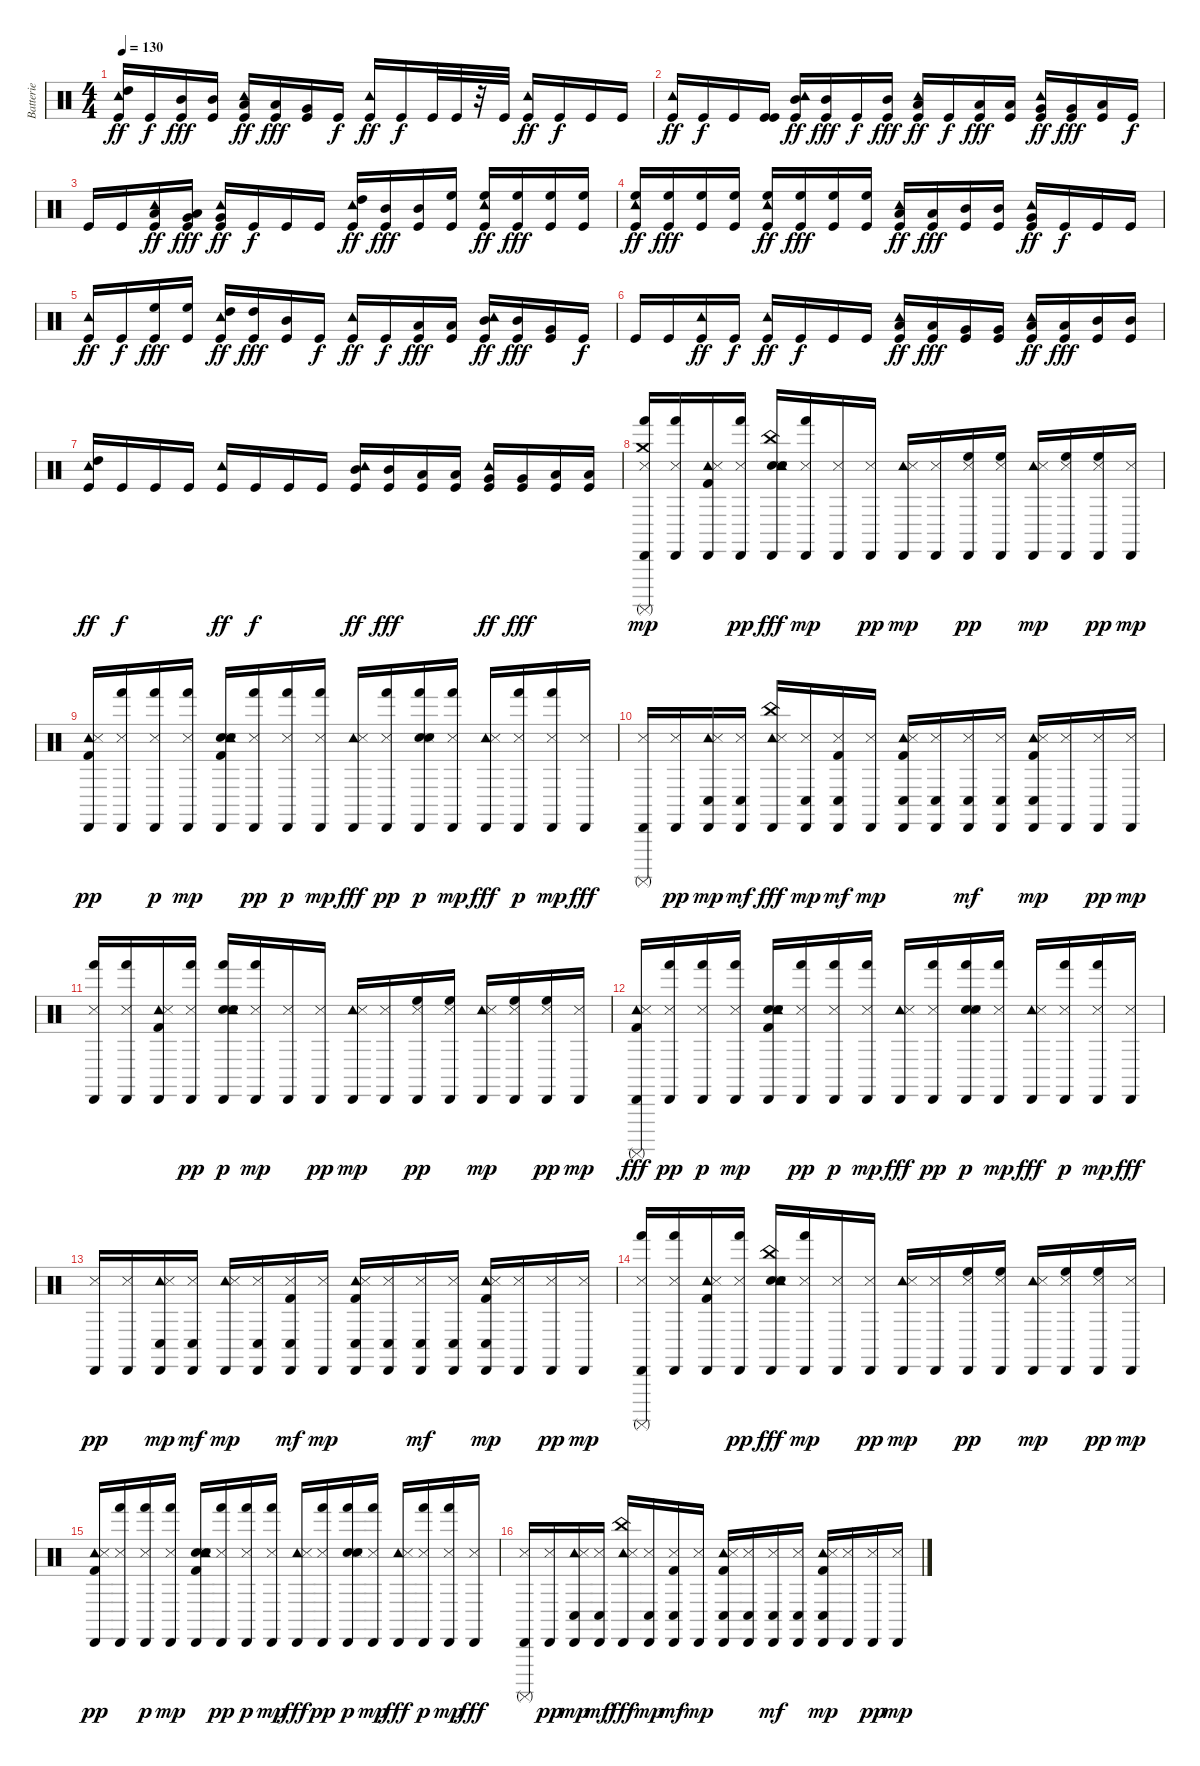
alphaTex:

\track ("Batterie" "Batterie") {instrument percussion}
\staff {score}
\articulation defaults
\ts (4 4)
\tempo 130
\clef neutral
\ks c
("High Tom (hit)" "Kick (hit)" "Tambourine (hit)").16{dy ff} "Kick (hit)".16{dy f} ("Kick (hit)" "Mid Tom (hit)").16{dy fff} ("Mid Tom (hit)" "Kick (hit)").16 ("Kick (hit)" "Low Tom (hit)" "Tambourine (hit)").16{dy ff} ("Low Tom (hit)" "Kick (hit)").16{dy fff} ("Kick (hit)" "Very Low Tom (hit)").16 "Kick (hit)".16{dy f} ("Kick (hit)" "Tambourine (hit)").16{dy ff} "Kick (hit)".16{dy f} "Kick (hit)".32 "Kick (hit)".32 r.32 "Kick (hit)".32 ("Kick (hit)" "Tambourine (hit)").16{dy ff} "Kick (hit)".16{dy f} "Kick (hit)".16 "Kick (hit)".16 |
("Kick (hit)" "Tambourine (hit)").16{dy ff} "Kick (hit)".16{dy f} "Kick (hit)".16 ("Kick (hit)" "Kick (hit)").16 ("Kick (hit)" "Mid Tom (hit)" "Tambourine (hit)").16{dy ff} ("Kick (hit)" "Mid Tom (hit)").16{dy fff} "Kick (hit)".16{dy f} ("Kick (hit)" "Mid Tom (hit)").16{dy fff} ("Kick (hit)" "Low Tom (hit)" "Tambourine (hit)").16{dy ff} "Kick (hit)".16{dy f} ("Kick (hit)" "Low Tom (hit)").16{dy fff} ("Kick (hit)" "Low Tom (hit)").16 ("Kick (hit)" "Very Low Tom (hit)" "Tambourine (hit)").16{dy ff} ("Kick (hit)" "Very Low Tom (hit)").16{dy fff} ("Low Floor Tom (hit)" "Kick (hit)").16 "Kick (hit)".16{dy f} |
"Kick (hit)".16 "Kick (hit)".16 ("Kick (hit)" "Low Tom (hit)" "Tambourine (hit)").16{dy ff} ("Kick (hit)" "Low Tom (hit)" "Very Low Tom (hit)").16{dy fff} ("Kick (hit)" "Very Low Tom (hit)" "Tambourine (hit)").16{dy ff} "Kick (hit)".16{dy f} "Kick (hit)".16 "Kick (hit)".16 ("Kick (hit)" "High Tom (hit)" "Tambourine (hit)").16{dy ff} ("Mid Tom (hit)" "Kick (hit)").16{dy fff} ("Mid Tom (hit)" "Kick (hit)").16 ("Kick (hit)" "High Floor Tom (hit)").16 ("Kick (hit)" "High Floor Tom (hit)" "Tambourine (hit)").16{dy ff} ("High Floor Tom (hit)" "Kick (hit)").16{dy fff} ("High Floor Tom (hit)" "Kick (hit)").16 ("High Floor Tom (hit)" "Kick (hit)").16 |
("High Floor Tom (hit)" "Kick (hit)" "Tambourine (hit)").16{dy ff} ("High Floor Tom (hit)" "Kick (hit)").16{dy fff} ("High Floor Tom (hit)" "Kick (hit)").16 ("High Floor Tom (hit)" "Kick (hit)").16 ("High Floor Tom (hit)" "Kick (hit)" "Tambourine (hit)").16{dy ff} ("High Floor Tom (hit)" "Kick (hit)").16{dy fff} ("High Floor Tom (hit)" "Kick (hit)").16 ("High Floor Tom (hit)" "Kick (hit)").16 ("Low Tom (hit)" "Kick (hit)" "Tambourine (hit)").16{dy ff} ("Low Tom (hit)" "Kick (hit)").16{dy fff} ("Mid Tom (hit)" "Kick (hit)").16 ("Mid Tom (hit)" "Kick (hit)").16 ("Very Low Tom (hit)" "Kick (hit)" "Tambourine (hit)").16{dy ff} "Kick (hit)".16{dy f} "Kick (hit)".16 "Kick (hit)".16 |
("Kick (hit)" "Tambourine (hit)").16{dy ff} "Kick (hit)".16{dy f} ("High Floor Tom (hit)" "Kick (hit)").16{dy fff} ("High Floor Tom (hit)" "Kick (hit)").16 ("High Tom (hit)" "Kick (hit)" "Tambourine (hit)").16{dy ff} ("High Tom (hit)" "Kick (hit)").16{dy fff} ("Mid Tom (hit)" "Kick (hit)").16 "Kick (hit)".16{dy f} ("Kick (hit)" "Tambourine (hit)").16{dy ff} "Kick (hit)".16{dy f} ("Low Tom (hit)" "Kick (hit)").16{dy fff} ("Low Tom (hit)" "Kick (hit)").16 ("Mid Tom (hit)" "Kick (hit)" "Tambourine (hit)").16{dy ff} ("Mid Tom (hit)" "Kick (hit)").16{dy fff} ("Very Low Tom (hit)" "Kick (hit)").16 "Kick (hit)".16{dy f} |
"Kick (hit)".16 "Kick (hit)".16 ("Kick (hit)" "Tambourine (hit)").16{dy ff} "Kick (hit)".16{dy f} ("Kick (hit)" "Tambourine (hit)").16{dy ff} "Kick (hit)".16{dy f} "Kick (hit)".16 "Kick (hit)".16 ("Low Floor Tom (hit)" "Kick (hit)" "Tambourine (hit)").16{dy ff} ("Low Floor Tom (hit)" "Kick (hit)").16{dy fff} ("Very Low Tom (hit)" "Kick (hit)").16 ("Very Low Tom (hit)" "Kick (hit)").16 ("Low Tom (hit)" "Kick (hit)" "Tambourine (hit)").16{dy ff} ("Low Tom (hit)" "Kick (hit)").16{dy fff} ("Mid Tom (hit)" "Kick (hit)").16 ("Mid Tom (hit)" "Kick (hit)").16 |
("High Tom (hit)" "Kick (hit)" "Tambourine (hit)").16{dy ff} "Kick (hit)".16{dy f} "Kick (hit)".16 "Kick (hit)".16 ("Kick (hit)" "Tambourine (hit)").16{dy ff} "Kick (hit)".16{dy f} "Kick (hit)".16 "Kick (hit)".16 ("Mid Tom (hit)" "Kick (hit)" "Tambourine (hit)").16{dy ff} ("Mid Tom (hit)" "Kick (hit)").16{dy fff} ("Low Tom (hit)" "Kick (hit)").16 ("Low Tom (hit)" "Kick (hit)").16 ("Very Low Tom (hit)" "Kick (hit)" "Tambourine (hit)").16{dy ff} ("Very Low Tom (hit)" "Kick (hit)").16{dy fff} ("Low Floor Tom (hit)" "Kick (hit)").16 ("Low Floor Tom (hit)" "Kick (hit)").16 |
("Cabasa (hit)" "Metronome (hit)" "Surdo (mute)" "Crash medium (hit)" "Hand (hit)").16{dy mp} ("Cabasa (hit)" "Metronome (hit)" "Hand (hit)").16 ("Cabasa (hit)" "Tambourine (hit)" "Kick (hit) 2" "Metronome (hit)").16 ("Cabasa (hit)" "Metronome (hit)" "Hand (hit)").16{dy pp} ("Hand Clap (hit)" "Cabasa (hit)" "Tambourine (hit)" "Snare (hit) 2" "Metronome (hit)" "China (hit)").16{dy fff} ("Cabasa (hit)" "Metronome (hit)" "Hand (hit)").16{dy mp} ("Cabasa (hit)" "Metronome (hit)").16 ("Cabasa (hit)" "Metronome (hit)").16{dy pp} ("Cabasa (hit)" "Tambourine (hit)" "Metronome (hit)").16{dy mp} ("Cabasa (hit)" "Metronome (hit)").16 ("Cabasa (hit)" "High Floor Tom (hit)" "Metronome (hit)").16{dy pp} ("Cabasa (hit)" "High Floor Tom (hit)" "Metronome (hit)").16 ("Cabasa (hit)" "Tambourine (hit)" "Metronome (hit)").16{dy mp} ("Cabasa (hit)" "High Floor Tom (hit)" "Metronome (hit)").16 ("Cabasa (hit)" "High Floor Tom (hit)" "Metronome (hit)").16{dy pp} ("Cabasa (hit)" "Metronome (hit)").16{dy mp} |
("Cabasa (hit)" "Tambourine (hit)" "Kick (hit) 2" "Metronome (hit)").16{dy pp} ("Cabasa (hit)" "Metronome (hit)" "Hand (hit)").16 ("Cabasa (hit)" "Metronome (hit)" "Hand (hit)").16{dy p} ("Cabasa (hit)" "Metronome (hit)" "Hand (hit)").16{dy mp} ("Hand Clap (hit)" "Cabasa (hit)" "Tambourine (hit)" "Kick (hit) 2" "Snare (hit) 2" "Metronome (hit)").16 ("Cabasa (hit)" "Metronome (hit)" "Hand (hit)").16{dy pp} ("Cabasa (hit)" "Metronome (hit)" "Hand (hit)").16{dy p} ("Cabasa (hit)" "Metronome (hit)" "Hand (hit)").16{dy mp} ("Cabasa (hit)" "Tambourine (hit)" "Metronome (hit)").16{dy fff} ("Cabasa (hit)" "Metronome (hit)" "Hand (hit)").16{dy pp} ("Hand Clap (hit)" "Cabasa (hit)" "Snare (hit) 2" "Metronome (hit)" "Hand (hit)").16{dy p} ("Cabasa (hit)" "Metronome (hit)" "Hand (hit)").16{dy mp} ("Cabasa (hit)" "Tambourine (hit)" "Metronome (hit)").16{dy fff} ("Cabasa (hit)" "Metronome (hit)" "Hand (hit)").16{dy p} ("Cabasa (hit)" "Metronome (hit)" "Hand (hit)").16{dy mp} ("Cabasa (hit)" "Metronome (hit)").16{dy fff} |
("Cabasa (hit)" "Metronome (hit)" "Surdo (mute)").16 ("Cabasa (hit)" "Metronome (hit)").16{dy pp} ("Cabasa (hit)" "Tambourine (hit)" "Metronome (hit)" "Conga low (hit)").16{dy mp} ("Cabasa (hit)" "Metronome (hit)" "Conga low (hit)").16{dy mf} ("Cabasa (hit)" "Tambourine (hit)" "Metronome (hit)" "China (hit)").16{dy fff} ("Cabasa (hit)" "Metronome (hit)" "Conga low (hit)").16{dy mp} ("Cabasa (hit)" "Kick (hit) 2" "Metronome (hit)" "Conga low (hit)").16{dy mf} ("Cabasa (hit)" "Metronome (hit)").16{dy mp} ("Cabasa (hit)" "Tambourine (hit)" "Kick (hit) 2" "Metronome (hit)" "Conga low (hit)").16 ("Cabasa (hit)" "Metronome (hit)" "Conga low (hit)").16 ("Cabasa (hit)" "Metronome (hit)" "Conga low (hit)").16{dy mf} ("Cabasa (hit)" "Metronome (hit)" "Conga low (hit)").16 ("Cabasa (hit)" "Tambourine (hit)" "Kick (hit) 2" "Metronome (hit)" "Conga low (hit)").16{dy mp} ("Cabasa (hit)" "Metronome (hit)").16 ("Cabasa (hit)" "Metronome (hit)").16{dy pp} ("Cabasa (hit)" "Metronome (hit)").16{dy mp} |
("Cabasa (hit)" "Metronome (hit)" "Hand (hit)").16 ("Cabasa (hit)" "Metronome (hit)" "Hand (hit)").16 ("Cabasa (hit)" "Tambourine (hit)" "Kick (hit) 2" "Metronome (hit)").16 ("Cabasa (hit)" "Metronome (hit)" "Hand (hit)").16{dy pp} ("Hand Clap (hit)" "Cabasa (hit)" "Tambourine (hit)" "Snare (hit) 2" "Metronome (hit)" "Hand (hit)").16{dy p} ("Cabasa (hit)" "Metronome (hit)" "Hand (hit)").16{dy mp} ("Cabasa (hit)" "Metronome (hit)").16 ("Cabasa (hit)" "Metronome (hit)").16{dy pp} ("Cabasa (hit)" "Tambourine (hit)" "Metronome (hit)").16{dy mp} ("Cabasa (hit)" "Metronome (hit)").16 ("Cabasa (hit)" "High Floor Tom (hit)" "Metronome (hit)").16{dy pp} ("Cabasa (hit)" "High Floor Tom (hit)" "Metronome (hit)").16 ("Cabasa (hit)" "Tambourine (hit)" "Metronome (hit)").16{dy mp} ("Cabasa (hit)" "High Floor Tom (hit)" "Metronome (hit)").16 ("Cabasa (hit)" "High Floor Tom (hit)" "Metronome (hit)").16{dy pp} ("Cabasa (hit)" "Metronome (hit)").16{dy mp} |
("Cabasa (hit)" "Tambourine (hit)" "Kick (hit) 2" "Metronome (hit)" "Surdo (mute)").16{dy fff} ("Cabasa (hit)" "Metronome (hit)" "Hand (hit)").16{dy pp} ("Cabasa (hit)" "Metronome (hit)" "Hand (hit)").16{dy p} ("Cabasa (hit)" "Metronome (hit)" "Hand (hit)").16{dy mp} ("Hand Clap (hit)" "Cabasa (hit)" "Tambourine (hit)" "Kick (hit) 2" "Snare (hit) 2" "Metronome (hit)").16 ("Cabasa (hit)" "Metronome (hit)" "Hand (hit)").16{dy pp} ("Cabasa (hit)" "Metronome (hit)" "Hand (hit)").16{dy p} ("Cabasa (hit)" "Metronome (hit)" "Hand (hit)").16{dy mp} ("Cabasa (hit)" "Tambourine (hit)" "Metronome (hit)").16{dy fff} ("Cabasa (hit)" "Metronome (hit)" "Hand (hit)").16{dy pp} ("Hand Clap (hit)" "Cabasa (hit)" "Snare (hit) 2" "Metronome (hit)" "Hand (hit)").16{dy p} ("Cabasa (hit)" "Metronome (hit)" "Hand (hit)").16{dy mp} ("Cabasa (hit)" "Tambourine (hit)" "Metronome (hit)").16{dy fff} ("Cabasa (hit)" "Metronome (hit)" "Hand (hit)").16{dy p} ("Cabasa (hit)" "Metronome (hit)" "Hand (hit)").16{dy mp} ("Cabasa (hit)" "Metronome (hit)").16{dy fff} |
("Cabasa (hit)" "Metronome (hit)").16{dy pp} ("Cabasa (hit)" "Metronome (hit)").16 ("Cabasa (hit)" "Tambourine (hit)" "Metronome (hit)" "Conga low (hit)").16{dy mp} ("Cabasa (hit)" "Metronome (hit)" "Conga low (hit)").16{dy mf} ("Cabasa (hit)" "Tambourine (hit)" "Metronome (hit)").16{dy mp} ("Cabasa (hit)" "Metronome (hit)" "Conga low (hit)").16 ("Cabasa (hit)" "Kick (hit) 2" "Metronome (hit)" "Conga low (hit)").16{dy mf} ("Cabasa (hit)" "Metronome (hit)").16{dy mp} ("Cabasa (hit)" "Tambourine (hit)" "Kick (hit) 2" "Metronome (hit)" "Conga low (hit)").16 ("Cabasa (hit)" "Metronome (hit)" "Conga low (hit)").16 ("Cabasa (hit)" "Metronome (hit)" "Conga low (hit)").16{dy mf} ("Cabasa (hit)" "Metronome (hit)" "Conga low (hit)").16 ("Cabasa (hit)" "Tambourine (hit)" "Kick (hit) 2" "Metronome (hit)" "Conga low (hit)").16{dy mp} ("Cabasa (hit)" "Metronome (hit)").16 ("Cabasa (hit)" "Metronome (hit)").16{dy pp} ("Cabasa (hit)" "Metronome (hit)").16{dy mp} |
("Cabasa (hit)" "Metronome (hit)" "Surdo (mute)" "Hand (hit)").16 ("Cabasa (hit)" "Metronome (hit)" "Hand (hit)").16 ("Cabasa (hit)" "Tambourine (hit)" "Kick (hit) 2" "Metronome (hit)").16 ("Cabasa (hit)" "Metronome (hit)" "Hand (hit)").16{dy pp} ("Hand Clap (hit)" "Cabasa (hit)" "Tambourine (hit)" "Snare (hit) 2" "Metronome (hit)" "China (hit)").16{dy fff} ("Cabasa (hit)" "Metronome (hit)" "Hand (hit)").16{dy mp} ("Cabasa (hit)" "Metronome (hit)").16 ("Cabasa (hit)" "Metronome (hit)").16{dy pp} ("Cabasa (hit)" "Tambourine (hit)" "Metronome (hit)").16{dy mp} ("Cabasa (hit)" "Metronome (hit)").16 ("Cabasa (hit)" "High Floor Tom (hit)" "Metronome (hit)").16{dy pp} ("Cabasa (hit)" "High Floor Tom (hit)" "Metronome (hit)").16 ("Cabasa (hit)" "Tambourine (hit)" "Metronome (hit)").16{dy mp} ("Cabasa (hit)" "High Floor Tom (hit)" "Metronome (hit)").16 ("Cabasa (hit)" "High Floor Tom (hit)" "Metronome (hit)").16{dy pp} ("Cabasa (hit)" "Metronome (hit)").16{dy mp} |
("Cabasa (hit)" "Tambourine (hit)" "Kick (hit) 2" "Metronome (hit)").16{dy pp} ("Cabasa (hit)" "Metronome (hit)" "Hand (hit)").16 ("Cabasa (hit)" "Metronome (hit)" "Hand (hit)").16{dy p} ("Cabasa (hit)" "Metronome (hit)" "Hand (hit)").16{dy mp} ("Hand Clap (hit)" "Cabasa (hit)" "Tambourine (hit)" "Kick (hit) 2" "Snare (hit) 2" "Metronome (hit)").16 ("Cabasa (hit)" "Metronome (hit)" "Hand (hit)").16{dy pp} ("Cabasa (hit)" "Metronome (hit)" "Hand (hit)").16{dy p} ("Cabasa (hit)" "Metronome (hit)" "Hand (hit)").16{dy mp} ("Cabasa (hit)" "Tambourine (hit)" "Metronome (hit)").16{dy fff} ("Cabasa (hit)" "Metronome (hit)" "Hand (hit)").16{dy pp} ("Hand Clap (hit)" "Cabasa (hit)" "Snare (hit) 2" "Metronome (hit)" "Hand (hit)").16{dy p} ("Cabasa (hit)" "Metronome (hit)" "Hand (hit)").16{dy mp} ("Cabasa (hit)" "Tambourine (hit)" "Metronome (hit)").16{dy fff} ("Cabasa (hit)" "Metronome (hit)" "Hand (hit)").16{dy p} ("Cabasa (hit)" "Metronome (hit)" "Hand (hit)").16{dy mp} ("Cabasa (hit)" "Metronome (hit)").16{dy fff} |
("Cabasa (hit)" "Metronome (hit)" "Surdo (mute)").16 ("Cabasa (hit)" "Metronome (hit)").16{dy pp} ("Cabasa (hit)" "Tambourine (hit)" "Metronome (hit)" "Conga low (hit)").16{dy mp} ("Cabasa (hit)" "Metronome (hit)" "Conga low (hit)").16{dy mf} ("Cabasa (hit)" "Tambourine (hit)" "Metronome (hit)" "China (hit)").16{dy fff} ("Cabasa (hit)" "Metronome (hit)" "Conga low (hit)").16{dy mp} ("Cabasa (hit)" "Kick (hit) 2" "Metronome (hit)" "Conga low (hit)").16{dy mf} ("Cabasa (hit)" "Metronome (hit)").16{dy mp} ("Cabasa (hit)" "Tambourine (hit)" "Kick (hit) 2" "Metronome (hit)" "Conga low (hit)").16 ("Cabasa (hit)" "Metronome (hit)" "Conga low (hit)").16 ("Cabasa (hit)" "Metronome (hit)" "Conga low (hit)").16{dy mf} ("Cabasa (hit)" "Metronome (hit)" "Conga low (hit)").16 ("Cabasa (hit)" "Tambourine (hit)" "Kick (hit) 2" "Metronome (hit)" "Conga low (hit)").16{dy mp} ("Cabasa (hit)" "Metronome (hit)").16 ("Cabasa (hit)" "Metronome (hit)").16{dy pp} ("Cabasa (hit)" "Metronome (hit)").16{dy mp}
